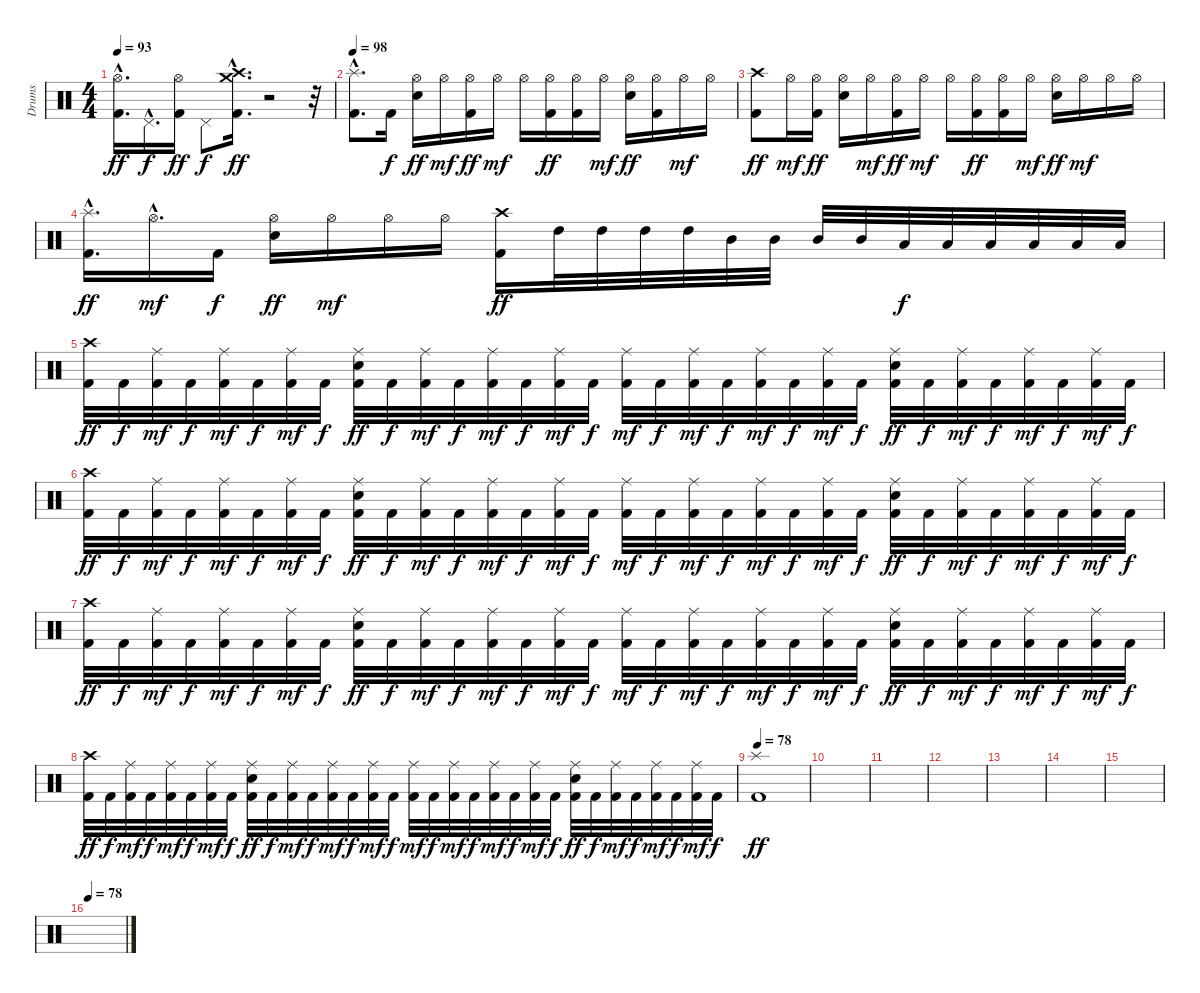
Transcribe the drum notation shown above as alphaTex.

\track ("Drums" "Drums") {instrument percussion}
\staff {score}
\articulation defaults
\ts (4 4)
\tempo 93
\clef neutral
\ks c
("Hi-Hat (open)"{hac} "Kick (hit) 2"{hac}).16{d dy ff} "Pedal Hi-Hat (hit)"{hac}.16{d dy f} ("Hi-Hat (open)" "Kick (hit) 2").16{dy ff} "Pedal Hi-Hat (hit)".8{dy f} ("Crash high (hit)"{hac} "Crash medium (hit)"{hac} "Kick (hit) 2"{hac}).16{d dy ff} r.2 r.32 |
\tempo 98
("Splash (hit)"{hac} "Kick (hit) 2"{hac}).8{d} "Kick (hit) 2".16{dy f} ("Hi-Hat (open)" "Electric Snare (hit)").16{dy ff} "Hi-Hat (open)".16{dy mf} ("Hi-Hat (open)" "Kick (hit) 2").16{dy ff} "Hi-Hat (open)".16{dy mf} "Hi-Hat (open)".16 ("Hi-Hat (open)" "Kick (hit) 2").16{dy ff} ("Hi-Hat (open)" "Kick (hit) 2").16 "Hi-Hat (open)".16{dy mf} ("Hi-Hat (open)" "Electric Snare (hit)").16{dy ff} ("Hi-Hat (open)" "Kick (hit) 2").16 "Hi-Hat (open)".16{dy mf} "Hi-Hat (open)".16 |
("Crash high (hit)" "Kick (hit) 2").8{dy ff} "Hi-Hat (open)".16{dy mf} ("Hi-Hat (open)" "Kick (hit) 2").16{dy ff} ("Hi-Hat (open)" "Electric Snare (hit)").16 "Hi-Hat (open)".16{dy mf} ("Hi-Hat (open)" "Kick (hit) 2").16{dy ff} "Hi-Hat (open)".16{dy mf} "Hi-Hat (open)".16 ("Hi-Hat (open)" "Kick (hit) 2").16{dy ff} ("Hi-Hat (open)" "Kick (hit) 2").16 "Hi-Hat (open)".16{dy mf} ("Hi-Hat (open)" "Electric Snare (hit)").16{dy ff} "Hi-Hat (open)".16{dy mf} "Hi-Hat (open)".16 "Hi-Hat (open)".16 |
("Splash (hit)"{hac} "Kick (hit) 2"{hac}).16{d dy ff} "Hi-Hat (open)"{hac}.16{d dy mf} "Kick (hit) 2".16{dy f} ("Hi-Hat (open)" "Electric Snare (hit)").16{dy ff} "Hi-Hat (open)".16{dy mf} "Hi-Hat (open)".16 "Hi-Hat (open)".16 ("Crash high (hit)" "Kick (hit) 2").16{dy ff} "High Tom (hit)".32 "High Tom (hit)".32 "High Tom (hit)".32 "High Tom (hit)".32 "Mid Tom (hit)".32 "Mid Tom (hit)".32 "Mid Tom (hit)".32 "Mid Tom (hit)".32 "Low Tom (hit)".32{dy f} "Low Tom (hit)".32 "Low Tom (hit)".32 "Low Tom (hit)".32 "Low Tom (hit)".32 "Low Tom (hit)".32 |
("Crash high (hit)" "Kick (hit) 2").32{dy ff} "Kick (hit) 2".32{dy f} ("Ride (middle)" "Kick (hit) 2").32{dy mf} "Kick (hit) 2".32{dy f} ("Ride (middle)" "Kick (hit) 2").32{dy mf} "Kick (hit) 2".32{dy f} ("Ride (middle)" "Kick (hit) 2").32{dy mf} "Kick (hit) 2".32{dy f} ("Ride (middle)" "Electric Snare (hit)" "Kick (hit) 2").32{dy ff} "Kick (hit) 2".32{dy f} ("Ride (middle)" "Kick (hit) 2").32{dy mf} "Kick (hit) 2".32{dy f} ("Ride (middle)" "Kick (hit) 2").32{dy mf} "Kick (hit) 2".32{dy f} ("Ride (middle)" "Kick (hit) 2").32{dy mf} "Kick (hit) 2".32{dy f} ("Ride (middle)" "Kick (hit) 2").32{dy mf} "Kick (hit) 2".32{dy f} ("Ride (middle)" "Kick (hit) 2").32{dy mf} "Kick (hit) 2".32{dy f} ("Ride (middle)" "Kick (hit) 2").32{dy mf} "Kick (hit) 2".32{dy f} ("Ride (middle)" "Kick (hit) 2").32{dy mf} "Kick (hit) 2".32{dy f} ("Ride (middle)" "Electric Snare (hit)" "Kick (hit) 2").32{dy ff} "Kick (hit) 2".32{dy f} ("Ride (middle)" "Kick (hit) 2").32{dy mf} "Kick (hit) 2".32{dy f} ("Ride (middle)" "Kick (hit) 2").32{dy mf} "Kick (hit) 2".32{dy f} ("Ride (middle)" "Kick (hit) 2").32{dy mf} "Kick (hit) 2".32{dy f} |
("Crash high (hit)" "Kick (hit) 2").32{dy ff} "Kick (hit) 2".32{dy f} ("Ride (middle)" "Kick (hit) 2").32{dy mf} "Kick (hit) 2".32{dy f} ("Ride (middle)" "Kick (hit) 2").32{dy mf} "Kick (hit) 2".32{dy f} ("Ride (middle)" "Kick (hit) 2").32{dy mf} "Kick (hit) 2".32{dy f} ("Ride (middle)" "Electric Snare (hit)" "Kick (hit) 2").32{dy ff} "Kick (hit) 2".32{dy f} ("Ride (middle)" "Kick (hit) 2").32{dy mf} "Kick (hit) 2".32{dy f} ("Ride (middle)" "Kick (hit) 2").32{dy mf} "Kick (hit) 2".32{dy f} ("Ride (middle)" "Kick (hit) 2").32{dy mf} "Kick (hit) 2".32{dy f} ("Ride (middle)" "Kick (hit) 2").32{dy mf} "Kick (hit) 2".32{dy f} ("Ride (middle)" "Kick (hit) 2").32{dy mf} "Kick (hit) 2".32{dy f} ("Ride (middle)" "Kick (hit) 2").32{dy mf} "Kick (hit) 2".32{dy f} ("Ride (middle)" "Kick (hit) 2").32{dy mf} "Kick (hit) 2".32{dy f} ("Ride (middle)" "Electric Snare (hit)" "Kick (hit) 2").32{dy ff} "Kick (hit) 2".32{dy f} ("Ride (middle)" "Kick (hit) 2").32{dy mf} "Kick (hit) 2".32{dy f} ("Ride (middle)" "Kick (hit) 2").32{dy mf} "Kick (hit) 2".32{dy f} ("Ride (middle)" "Kick (hit) 2").32{dy mf} "Kick (hit) 2".32{dy f} |
("Crash high (hit)" "Kick (hit) 2").32{dy ff} "Kick (hit) 2".32{dy f} ("Ride (middle)" "Kick (hit) 2").32{dy mf} "Kick (hit) 2".32{dy f} ("Ride (middle)" "Kick (hit) 2").32{dy mf} "Kick (hit) 2".32{dy f} ("Ride (middle)" "Kick (hit) 2").32{dy mf} "Kick (hit) 2".32{dy f} ("Ride (middle)" "Electric Snare (hit)" "Kick (hit) 2").32{dy ff} "Kick (hit) 2".32{dy f} ("Ride (middle)" "Kick (hit) 2").32{dy mf} "Kick (hit) 2".32{dy f} ("Ride (middle)" "Kick (hit) 2").32{dy mf} "Kick (hit) 2".32{dy f} ("Ride (middle)" "Kick (hit) 2").32{dy mf} "Kick (hit) 2".32{dy f} ("Ride (middle)" "Kick (hit) 2").32{dy mf} "Kick (hit) 2".32{dy f} ("Ride (middle)" "Kick (hit) 2").32{dy mf} "Kick (hit) 2".32{dy f} ("Ride (middle)" "Kick (hit) 2").32{dy mf} "Kick (hit) 2".32{dy f} ("Ride (middle)" "Kick (hit) 2").32{dy mf} "Kick (hit) 2".32{dy f} ("Ride (middle)" "Electric Snare (hit)" "Kick (hit) 2").32{dy ff} "Kick (hit) 2".32{dy f} ("Ride (middle)" "Kick (hit) 2").32{dy mf} "Kick (hit) 2".32{dy f} ("Ride (middle)" "Kick (hit) 2").32{dy mf} "Kick (hit) 2".32{dy f} ("Ride (middle)" "Kick (hit) 2").32{dy mf} "Kick (hit) 2".32{dy f} |
("Crash high (hit)" "Kick (hit) 2").32{dy ff} "Kick (hit) 2".32{dy f} ("Ride (middle)" "Kick (hit) 2").32{dy mf} "Kick (hit) 2".32{dy f} ("Ride (middle)" "Kick (hit) 2").32{dy mf} "Kick (hit) 2".32{dy f} ("Ride (middle)" "Kick (hit) 2").32{dy mf} "Kick (hit) 2".32{dy f} ("Ride (middle)" "Electric Snare (hit)" "Kick (hit) 2").32{dy ff} "Kick (hit) 2".32{dy f} ("Ride (middle)" "Kick (hit) 2").32{dy mf} "Kick (hit) 2".32{dy f} ("Ride (middle)" "Kick (hit) 2").32{dy mf} "Kick (hit) 2".32{dy f} ("Ride (middle)" "Kick (hit) 2").32{dy mf} "Kick (hit) 2".32{dy f} ("Ride (middle)" "Kick (hit) 2").32{dy mf} "Kick (hit) 2".32{dy f} ("Ride (middle)" "Kick (hit) 2").32{dy mf} "Kick (hit) 2".32{dy f} ("Ride (middle)" "Kick (hit) 2").32{dy mf} "Kick (hit) 2".32{dy f} ("Ride (middle)" "Kick (hit) 2").32{dy mf} "Kick (hit) 2".32{dy f} ("Ride (middle)" "Electric Snare (hit)" "Kick (hit) 2").32{dy ff} "Kick (hit) 2".32{dy f} ("Ride (middle)" "Kick (hit) 2").32{dy mf} "Kick (hit) 2".32{dy f} ("Ride (middle)" "Kick (hit) 2").32{dy mf} "Kick (hit) 2".32{dy f} ("Ride (middle)" "Kick (hit) 2").32{dy mf} "Kick (hit) 2".32{dy f} |
\tempo 78
("Splash (hit)" "Kick (hit) 2").1{dy ff} |
|
|
|
|
|
|
\tempo 78
